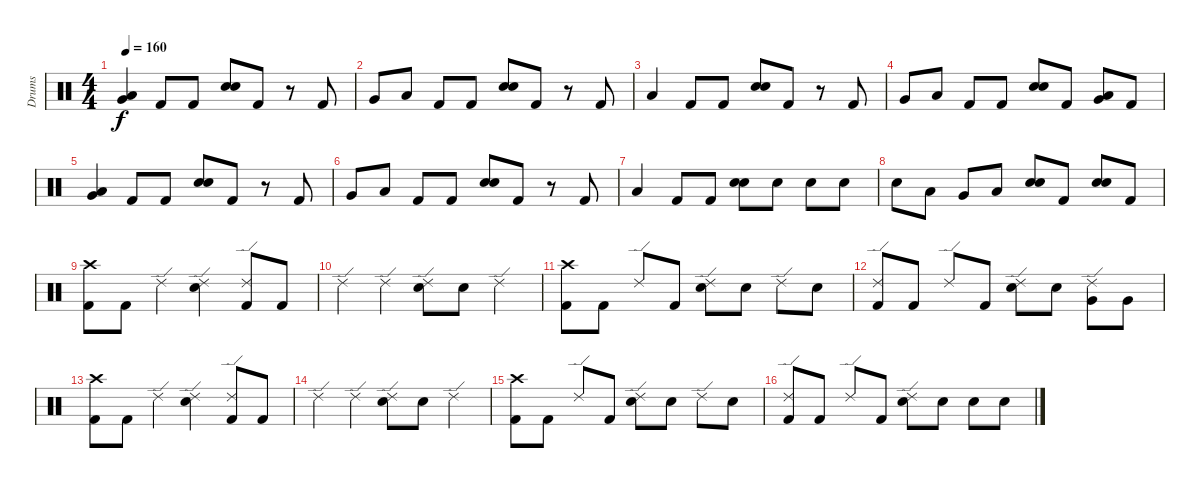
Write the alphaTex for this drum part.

\track ("Drums" "Drums") {instrument percussion}
\staff {score}
\articulation defaults
\ts (4 4)
\tempo 160
\clef neutral
\ks c
("Very Low Tom (hit)" "Low Floor Tom (hit)").4{bd 120 dy f} "Kick (hit) 2".8 "Kick (hit) 2".8 ("Electric Snare (hit)" "Electric Snare (hit)").8{bd 120} "Kick (hit) 2".8 r.8 "Kick (hit) 2".8 |
"Very Low Tom (hit)".8 "Low Floor Tom (hit)".8 "Kick (hit) 2".8 "Kick (hit) 2".8 ("Electric Snare (hit)" "Electric Snare (hit)").8{bd 120} "Kick (hit) 2".8 r.8 "Kick (hit) 2".8 |
"Low Floor Tom (hit)".4 "Kick (hit) 2".8 "Kick (hit) 2".8 ("Electric Snare (hit)" "Electric Snare (hit)").8{bd 120} "Kick (hit) 2".8 r.8 "Kick (hit) 2".8 |
"Very Low Tom (hit)".8 "Low Floor Tom (hit)".8 "Kick (hit) 2".8 "Kick (hit) 2".8 ("Electric Snare (hit)" "Electric Snare (hit)").8{bd 120} "Kick (hit) 2".8 ("Low Floor Tom (hit)" "Very Low Tom (hit)").8{bd 120} "Kick (hit) 2".8 |
("Very Low Tom (hit)" "Low Floor Tom (hit)").4{bd 120} "Kick (hit) 2".8 "Kick (hit) 2".8 ("Electric Snare (hit)" "Electric Snare (hit)").8{bd 120} "Kick (hit) 2".8 r.8 "Kick (hit) 2".8 |
"Very Low Tom (hit)".8 "Low Floor Tom (hit)".8 "Kick (hit) 2".8 "Kick (hit) 2".8 ("Electric Snare (hit)" "Electric Snare (hit)").8{bd 120} "Kick (hit) 2".8 r.8 "Kick (hit) 2".8 |
"Low Floor Tom (hit)".4 "Kick (hit) 2".8 "Kick (hit) 2".8 ("Electric Snare (hit)" "Electric Snare (hit)").8{bd 120} "Electric Snare (hit)".8 "Electric Snare (hit)".8 "Electric Snare (hit)".8 |
"Electric Snare (hit)".8 "Low Tom (hit)".8 "Very Low Tom (hit)".8 "Low Floor Tom (hit)".8 ("Electric Snare (hit)" "Electric Snare (hit)").8{bd 120} "Kick (hit) 2".8 ("Electric Snare (hit)" "Electric Snare (hit)").8{bd 120} "Kick (hit) 2".8 |
("Crash high (hit)" "Kick (hit) 2").8 "Kick (hit) 2".8 "Ride (edge) 2".4 ("Ride (edge) 2" "Electric Snare (hit)").4 ("Ride (edge) 2" "Kick (hit) 2").8 "Kick (hit) 2".8 |
"Ride (edge) 2".4 "Ride (edge) 2".4 ("Ride (edge) 2" "Electric Snare (hit)").8 "Electric Snare (hit)".8 "Ride (edge) 2".4 |
("Crash high (hit)" "Kick (hit) 2").8 "Kick (hit) 2".8 "Ride (edge) 2".8 "Kick (hit) 2".8 ("Ride (edge) 2" "Electric Snare (hit)").8 "Electric Snare (hit)".8 "Ride (edge) 2".8 "Electric Snare (hit)".8 |
("Ride (edge) 2" "Kick (hit) 2").8 "Kick (hit) 2".8 "Ride (edge) 2".8 "Kick (hit) 2".8 ("Ride (edge) 2" "Electric Snare (hit)").8 "Electric Snare (hit)".8 ("Ride (edge) 2" "Very Low Tom (hit)").8 "Very Low Tom (hit)".8 |
("Crash high (hit)" "Kick (hit) 2").8 "Kick (hit) 2".8 "Ride (edge) 2".4 ("Ride (edge) 2" "Electric Snare (hit)").4 ("Ride (edge) 2" "Kick (hit) 2").8 "Kick (hit) 2".8 |
"Ride (edge) 2".4 "Ride (edge) 2".4 ("Ride (edge) 2" "Electric Snare (hit)").8 "Electric Snare (hit)".8 "Ride (edge) 2".4 |
("Crash high (hit)" "Kick (hit) 2").8 "Kick (hit) 2".8 "Ride (edge) 2".8 "Kick (hit) 2".8 ("Ride (edge) 2" "Electric Snare (hit)").8 "Electric Snare (hit)".8 "Ride (edge) 2".8 "Electric Snare (hit)".8 |
("Ride (edge) 2" "Kick (hit) 2").8 "Kick (hit) 2".8 "Ride (edge) 2".8 "Kick (hit) 2".8 ("Ride (edge) 2" "Electric Snare (hit)").8 "Electric Snare (hit)".8 "Electric Snare (hit)".8 "Electric Snare (hit)".8
